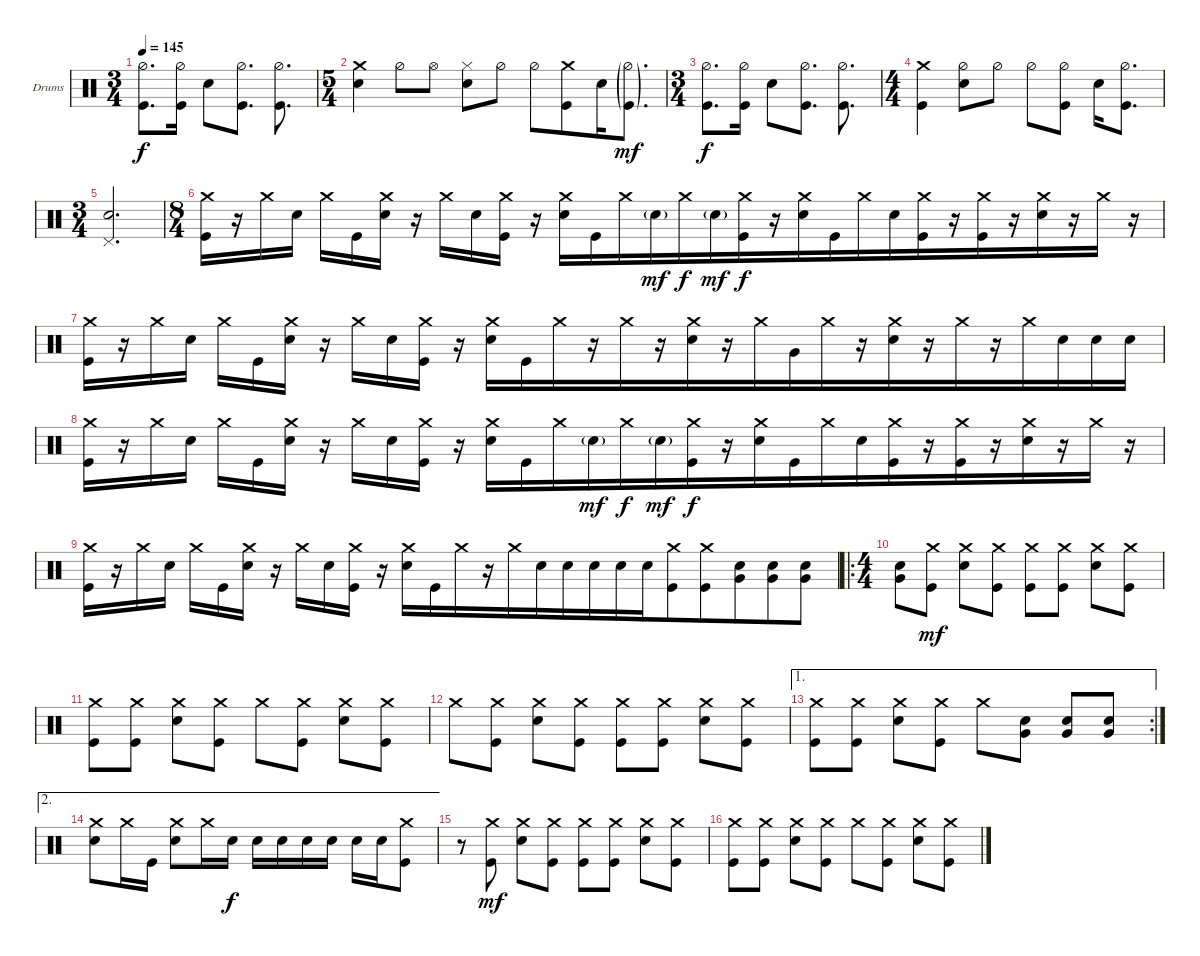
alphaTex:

\bracketExtendMode groupsimilarinstruments
\firstSystemTrackNameOrientation horizontal
\otherSystemsTrackNameOrientation horizontal
\track ("Drumkit" "Drums") {instrument percussion}
\staff {score}
\articulation defaults
\ts (3 4)
\beaming (8 2 2 2)
\tempo 145
\clef neutral
\ks c
("Hi-Hat (half)" "Kick (hit)").8{d dy f} ("Hi-Hat (half)" "Kick (hit)").16 "Snare (hit) 2".8 ("Hi-Hat (half)" "Kick (hit)").8{d} ("Hi-Hat (half)" "Kick (hit)").8{d} |
\ts (5 4)
\beaming (8 2 2 2 4)
("Crash medium (hit)" "Snare (hit) 2").4 "Hi-Hat (half)".8 "Hi-Hat (open)".8 ("Hi-Hat (closed)" "Snare (hit) 2").8 "Hi-Hat (half)".8 "Hi-Hat (half)".8 ("Crash medium (hit)" "Kick (hit)").8 "Snare (hit) 2".16 ("Hi-Hat (half)"{g} "Kick (hit)"{g}).8{d dy mf} |
\ts (3 4)
\beaming (8 2 2 2)
("Hi-Hat (half)" "Kick (hit)").8{d dy f} ("Hi-Hat (half)" "Kick (hit)").16 "Snare (hit) 2".8 ("Hi-Hat (half)" "Kick (hit)").8{d} ("Hi-Hat (half)" "Kick (hit)").8{d} |
\ts (4 4)
\beaming (8 2 2 2 2)
("Crash medium (hit)" "Kick (hit)").4 ("Hi-Hat (half)" "Snare (hit) 2").8 "Hi-Hat (half)".8 "Hi-Hat (half)".8 ("Hi-Hat (half)" "Kick (hit)").8 "Snare (hit) 2".16 ("Hi-Hat (half)" "Kick (hit)").8{d} |
\ts (3 4)
\beaming (8 2 2 2)
("Snare (hit) 2" "Pedal Hi-Hat (hit)").2{d} |
\ts (8 4)
\beaming (8 2 2 2 10)
("Crash medium (hit)" "Kick (hit)").16 r.16 "Crash medium (hit)".16 "Snare (hit) 2".16 "Crash medium (hit)".16 "Kick (hit)".16 ("Snare (hit) 2" "Crash medium (hit)").16 r.16 "Crash medium (hit)".16 "Snare (hit) 2".16 ("Kick (hit)" "Crash medium (hit)").16 r.16 ("Snare (hit) 2" "Crash medium (hit)").16 "Kick (hit)".16 "Crash medium (hit)".16 "Snare (hit) 2"{g}.16{dy mf} "Crash medium (hit)".16{dy f} "Snare (hit) 2"{g}.16{dy mf} ("Kick (hit)" "Crash medium (hit)").16{dy f} r.16 ("Snare (hit) 2" "Crash medium (hit)").16 "Kick (hit)".16 "Crash medium (hit)".16 "Snare (hit) 2".16 ("Kick (hit)" "Crash medium (hit)").16 r.16 ("Kick (hit)" "Crash medium (hit)").16 r.16 ("Snare (hit) 2" "Crash medium (hit)").16 r.16 "Crash medium (hit)".16 r.16 |
("Crash medium (hit)" "Kick (hit)").16 r.16 "Crash medium (hit)".16 "Snare (hit) 2".16 "Crash medium (hit)".16 "Kick (hit)".16 ("Snare (hit) 2" "Crash medium (hit)").16 r.16 "Crash medium (hit)".16 "Snare (hit) 2".16 ("Kick (hit)" "Crash medium (hit)").16 r.16 ("Snare (hit) 2" "Crash medium (hit)").16 "Kick (hit)".16 "Crash medium (hit)".16 r.16 "Crash medium (hit)".16 r.16 ("Snare (hit) 2" "Crash medium (hit)").16 r.16 "Crash medium (hit)".16 "Very Low Tom (hit)".16 "Crash medium (hit)".16 r.16 ("Snare (hit) 2" "Crash medium (hit)").16 r.16 "Crash medium (hit)".16 r.16 "Crash medium (hit)".16 "Snare (hit) 2".16 "Snare (hit) 2".16 "Snare (hit) 2".16 |
("Kick (hit)" "Crash medium (hit)").16 r.16 "Crash medium (hit)".16 "Snare (hit) 2".16 "Crash medium (hit)".16 "Kick (hit)".16 ("Snare (hit) 2" "Crash medium (hit)").16 r.16 "Crash medium (hit)".16 "Snare (hit) 2".16 ("Kick (hit)" "Crash medium (hit)").16 r.16 ("Snare (hit) 2" "Crash medium (hit)").16 "Kick (hit)".16 "Crash medium (hit)".16 "Snare (hit) 2"{g}.16{dy mf} "Crash medium (hit)".16{dy f} "Snare (hit) 2"{g}.16{dy mf} ("Kick (hit)" "Crash medium (hit)").16{dy f} r.16 ("Snare (hit) 2" "Crash medium (hit)").16 "Kick (hit)".16 "Crash medium (hit)".16 "Snare (hit) 2".16 ("Kick (hit)" "Crash medium (hit)").16 r.16 ("Kick (hit)" "Crash medium (hit)").16 r.16 ("Snare (hit) 2" "Crash medium (hit)").16 r.16 "Crash medium (hit)".16 r.16 |
("Crash medium (hit)" "Kick (hit)").16 r.16 "Crash medium (hit)".16 "Snare (hit) 2".16 "Crash medium (hit)".16 "Kick (hit)".16 ("Snare (hit) 2" "Crash medium (hit)").16 r.16 "Crash medium (hit)".16 "Snare (hit) 2".16 ("Kick (hit)" "Crash medium (hit)").16 r.16 ("Snare (hit) 2" "Crash medium (hit)").16 "Kick (hit)".16 "Crash medium (hit)".16 r.16 "Crash medium (hit)".16 "Snare (hit) 2".16 "Snare (hit) 2".16 "Snare (hit) 2".16 "Snare (hit) 2".16 "Snare (hit) 2".16 ("Crash medium (hit)" "Kick (hit)").8 ("Crash medium (hit)" "Kick (hit)").8 ("Snare (hit) 2" "Very Low Tom (hit)").8 ("Snare (hit) 2" "Very Low Tom (hit)").8 ("Snare (hit) 2" "Very Low Tom (hit)").8 |
\ro
\ts (4 4)
\beaming (8 2 2 2 2)
("Very Low Tom (hit)" "Snare (hit) 2").8 ("Crash medium (hit)" "Kick (hit)").8{dy mf} ("Crash medium (hit)" "Snare (hit) 2").8 ("Crash medium (hit)" "Kick (hit)").8 ("Crash medium (hit)" "Kick (hit)").8 ("Crash medium (hit)" "Kick (hit)").8 ("Crash medium (hit)" "Snare (hit) 2").8 ("Crash medium (hit)" "Kick (hit)").8 |
("Crash medium (hit)" "Kick (hit)").8 ("Crash medium (hit)" "Kick (hit)").8 ("Crash medium (hit)" "Snare (hit) 2").8 ("Crash medium (hit)" "Kick (hit)").8 "Crash medium (hit)".8 ("Crash medium (hit)" "Kick (hit)").8 ("Crash medium (hit)" "Snare (hit) 2").8 ("Crash medium (hit)" "Kick (hit)").8 |
"Crash medium (hit)".8 ("Crash medium (hit)" "Kick (hit)").8 ("Crash medium (hit)" "Snare (hit) 2").8 ("Crash medium (hit)" "Kick (hit)").8 ("Crash medium (hit)" "Kick (hit)").8 ("Crash medium (hit)" "Kick (hit)").8 ("Crash medium (hit)" "Snare (hit) 2").8 ("Crash medium (hit)" "Kick (hit)").8 |
\ae 1
\rc 2
("Crash medium (hit)" "Kick (hit)").8 ("Crash medium (hit)" "Kick (hit)").8 ("Crash medium (hit)" "Snare (hit) 2").8 ("Crash medium (hit)" "Kick (hit)").8 "Crash medium (hit)".8 ("Snare (hit) 2" "Very Low Tom (hit)").8 ("Snare (hit) 2" "Very Low Tom (hit)").8 ("Snare (hit) 2" "Very Low Tom (hit)").8 |
\ae 2
("Crash medium (hit)" "Snare (hit) 2").8 "Crash medium (hit)".16 "Kick (hit)".16 ("Crash medium (hit)" "Snare (hit) 2").8 "Crash medium (hit)".16 "Snare (hit) 2".16{dy f} "Snare (hit) 2".16 "Snare (hit) 2".16 "Snare (hit) 2".16 "Snare (hit) 2".16 "Snare (hit) 2".16 "Snare (hit) 2".16 ("Crash medium (hit)" "Kick (hit)").8 |
r.8 ("Crash medium (hit)" "Kick (hit)").8{dy mf} ("Crash medium (hit)" "Snare (hit) 2").8 ("Crash medium (hit)" "Kick (hit)").8 ("Crash medium (hit)" "Kick (hit)").8 ("Crash medium (hit)" "Kick (hit)").8 ("Crash medium (hit)" "Snare (hit) 2").8 ("Crash medium (hit)" "Kick (hit)").8 |
("Crash medium (hit)" "Kick (hit)").8 ("Crash medium (hit)" "Kick (hit)").8 ("Crash medium (hit)" "Snare (hit) 2").8 ("Crash medium (hit)" "Kick (hit)").8 "Crash medium (hit)".8 ("Crash medium (hit)" "Kick (hit)").8 ("Crash medium (hit)" "Snare (hit) 2").8 ("Crash medium (hit)" "Kick (hit)").8
